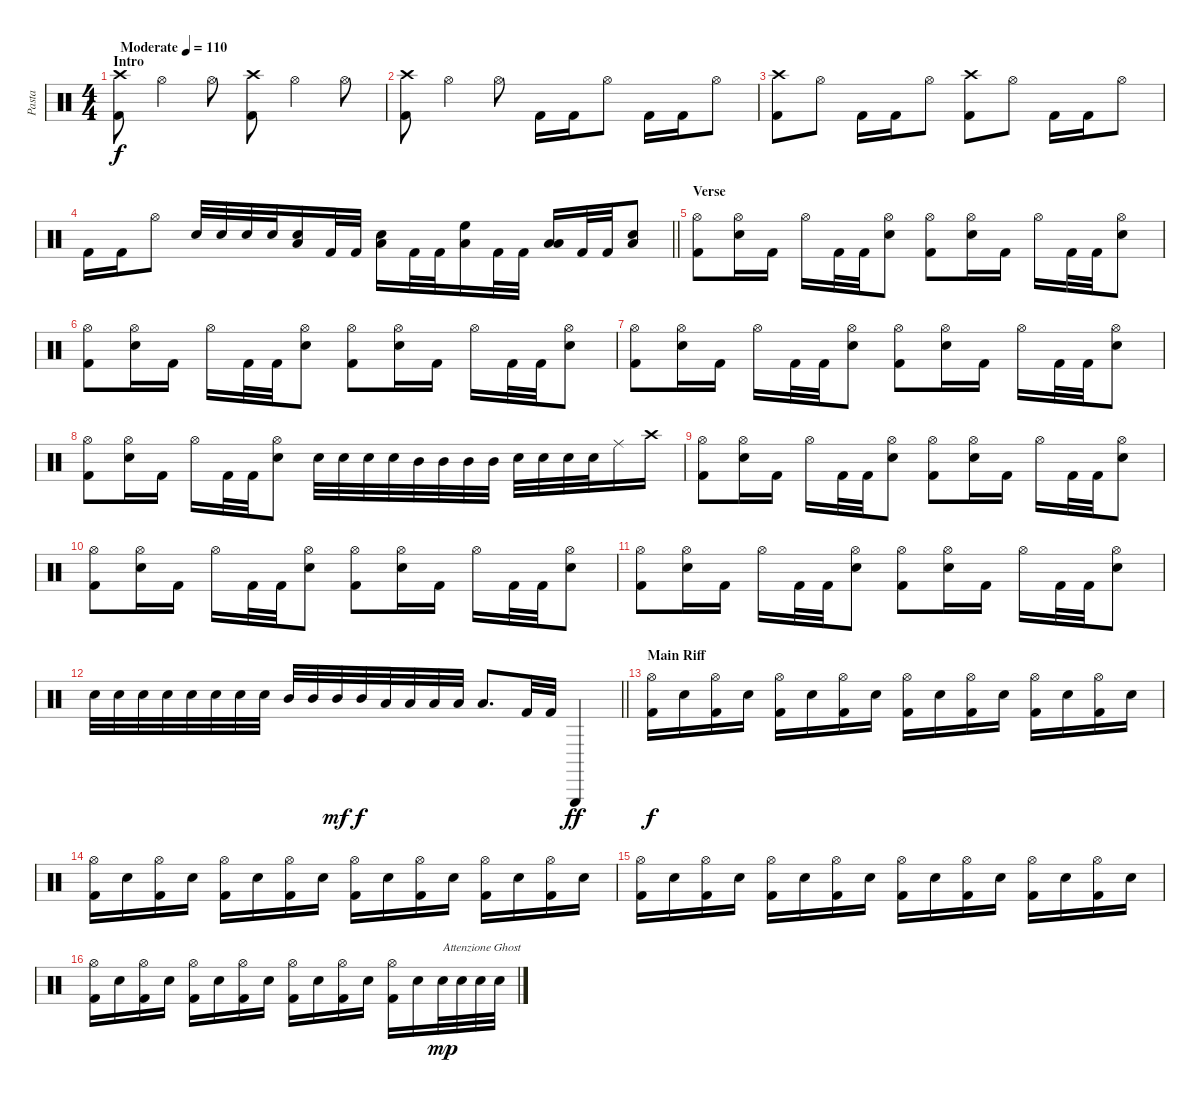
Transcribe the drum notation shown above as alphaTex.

\track ("Pasta" "Pasta") {instrument percussion}
\staff {score}
\articulation defaults
\ts (4 4)
\section ("" "Intro")
\tempo (110 "Moderate")
\clef neutral
\ks c
("Crash high (hit)" "Kick (hit) 2").8{dy f} "Hi-Hat (open)".4 "Hi-Hat (open)".8 ("Crash high (hit)" "Kick (hit) 2").8 "Hi-Hat (open)".4 "Hi-Hat (open)".8 |
("Crash high (hit)" "Kick (hit) 2").8 "Hi-Hat (open)".4 "Hi-Hat (open)".8 "Kick (hit) 2".16 "Kick (hit) 2".16 "Hi-Hat (open)".8 "Kick (hit) 2".16 "Kick (hit) 2".16 "Hi-Hat (open)".8 |
("Crash high (hit)" "Kick (hit) 2").8 "Hi-Hat (open)".8 "Kick (hit) 2".16 "Kick (hit) 2".16 "Hi-Hat (open)".8 ("Crash high (hit)" "Kick (hit) 2").8 "Hi-Hat (open)".8 "Kick (hit) 2".16 "Kick (hit) 2".16 "Hi-Hat (open)".8 |
\barLineRight lightlight "Kick (hit) 2".16 "Kick (hit) 2".16 "Hi-Hat (open)".8 "Electric Snare (hit)".32 "Electric Snare (hit)".32 "Electric Snare (hit)".32 "Electric Snare (hit)".32
("Electric Snare (hit)" "Low Tom (hit)").16 "Kick (hit) 2".32 "Kick (hit) 2".32 ("Low Tom (hit)" "Electric Snare (hit)").16 "Kick (hit) 2".32 "Kick (hit) 2".32 ("High Floor Tom (hit)" "Low Tom (hit)").16 "Kick (hit) 2".32 "Kick (hit) 2".32 ("Low Floor Tom (hit)" "Low Tom (hit)").16 "Kick (hit) 2".32 "Kick (hit) 2".32 ("Low Floor Tom (hit)" "Electric Snare (hit)").8 |
\section ("" "Verse")
("Hi-Hat (open)" "Kick (hit) 2").8 ("Hi-Hat (open)" "Electric Snare (hit)").16 "Kick (hit) 2".16 "Hi-Hat (open)".16 "Kick (hit) 2".32 "Kick (hit) 2".32 ("Hi-Hat (open)" "Electric Snare (hit)").8 ("Hi-Hat (open)" "Kick (hit) 2").8 ("Hi-Hat (open)" "Electric Snare (hit)").16 "Kick (hit) 2".16 "Hi-Hat (open)".16 "Kick (hit) 2".32 "Kick (hit) 2".32 ("Hi-Hat (open)" "Electric Snare (hit)").8 |
("Hi-Hat (open)" "Kick (hit) 2").8 ("Hi-Hat (open)" "Electric Snare (hit)").16 "Kick (hit) 2".16 "Hi-Hat (open)".16 "Kick (hit) 2".32 "Kick (hit) 2".32 ("Hi-Hat (open)" "Electric Snare (hit)").8 ("Hi-Hat (open)" "Kick (hit) 2").8 ("Hi-Hat (open)" "Electric Snare (hit)").16 "Kick (hit) 2".16 "Hi-Hat (open)".16 "Kick (hit) 2".32 "Kick (hit) 2".32 ("Hi-Hat (open)" "Electric Snare (hit)").8 |
("Hi-Hat (open)" "Kick (hit) 2").8 ("Hi-Hat (open)" "Electric Snare (hit)").16 "Kick (hit) 2".16 "Hi-Hat (open)".16 "Kick (hit) 2".32 "Kick (hit) 2".32 ("Hi-Hat (open)" "Electric Snare (hit)").8 ("Hi-Hat (open)" "Kick (hit) 2").8 ("Hi-Hat (open)" "Electric Snare (hit)").16 "Kick (hit) 2".16 "Hi-Hat (open)".16 "Kick (hit) 2".32 "Kick (hit) 2".32 ("Hi-Hat (open)" "Electric Snare (hit)").8 |
("Hi-Hat (open)" "Kick (hit) 2").8 ("Hi-Hat (open)" "Electric Snare (hit)").16 "Kick (hit) 2".16 "Hi-Hat (open)".16 "Kick (hit) 2".32 "Kick (hit) 2".32 ("Hi-Hat (open)" "Electric Snare (hit)").8 "Snare (hit) 2".32 "Snare (hit) 2".32 "Snare (hit) 2".32 "Snare (hit) 2".32 "Mid Tom (hit)".32 "Mid Tom (hit)".32 "Mid Tom (hit)".32 "Mid Tom (hit)".32 "Snare (hit) 2".32 "Snare (hit) 2".32 "Snare (hit) 2".32 "Snare (hit) 2".32 "Ride (middle)".16 "Crash high (hit)".16 |
("Hi-Hat (open)" "Kick (hit) 2").8 ("Hi-Hat (open)" "Electric Snare (hit)").16 "Kick (hit) 2".16 "Hi-Hat (open)".16 "Kick (hit) 2".32 "Kick (hit) 2".32 ("Hi-Hat (open)" "Electric Snare (hit)").8 ("Hi-Hat (open)" "Kick (hit) 2").8 ("Hi-Hat (open)" "Electric Snare (hit)").16 "Kick (hit) 2".16 "Hi-Hat (open)".16 "Kick (hit) 2".32 "Kick (hit) 2".32 ("Hi-Hat (open)" "Electric Snare (hit)").8 |
("Hi-Hat (open)" "Kick (hit) 2").8 ("Hi-Hat (open)" "Electric Snare (hit)").16 "Kick (hit) 2".16 "Hi-Hat (open)".16 "Kick (hit) 2".32 "Kick (hit) 2".32 ("Hi-Hat (open)" "Electric Snare (hit)").8 ("Hi-Hat (open)" "Kick (hit) 2").8 ("Hi-Hat (open)" "Electric Snare (hit)").16 "Kick (hit) 2".16 "Hi-Hat (open)".16 "Kick (hit) 2".32 "Kick (hit) 2".32 ("Hi-Hat (open)" "Electric Snare (hit)").8 |
("Hi-Hat (open)" "Kick (hit) 2").8 ("Hi-Hat (open)" "Electric Snare (hit)").16 "Kick (hit) 2".16 "Hi-Hat (open)".16 "Kick (hit) 2".32 "Kick (hit) 2".32 ("Hi-Hat (open)" "Electric Snare (hit)").8 ("Hi-Hat (open)" "Kick (hit) 2").8 ("Hi-Hat (open)" "Electric Snare (hit)").16 "Kick (hit) 2".16 "Hi-Hat (open)".16 "Kick (hit) 2".32 "Kick (hit) 2".32 ("Hi-Hat (open)" "Electric Snare (hit)").8 |
\barLineRight lightlight "Electric Snare (hit)".32 "Electric Snare (hit)".32 "Electric Snare (hit)".32 "Electric Snare (hit)".32 "Electric Snare (hit)".32 "Electric Snare (hit)".32 "Electric Snare (hit)".32 "Electric Snare (hit)".32 "Mid Tom (hit)".32 "Mid Tom (hit)".32 "Mid Tom (hit)".32{dy mf} "Mid Tom (hit)".32{dy f} "Low Tom (hit)".32 "Low Tom (hit)".32 "Low Tom (hit)".32 "Low Tom (hit)".32 "Low Floor Tom (hit)".8{d} "Kick (hit) 2".32 "Kick (hit) 2".32 "Triangle (hit)".4{dy ff}
|
\section ("" "Main Riff")
("Hi-Hat (open)" "Kick (hit) 2").16{dy f} "Electric Snare (hit)".16 ("Hi-Hat (open)" "Kick (hit) 2").16 "Electric Snare (hit)".16 ("Hi-Hat (open)" "Kick (hit) 2").16 "Electric Snare (hit)".16 ("Hi-Hat (open)" "Kick (hit) 2").16 "Electric Snare (hit)".16 ("Hi-Hat (open)" "Kick (hit) 2").16 "Electric Snare (hit)".16 ("Hi-Hat (open)" "Kick (hit) 2").16 "Electric Snare (hit)".16 ("Hi-Hat (open)" "Kick (hit) 2").16 "Electric Snare (hit)".16 ("Hi-Hat (open)" "Kick (hit) 2").16 "Electric Snare (hit)".16 |
("Hi-Hat (open)" "Kick (hit) 2").16 "Electric Snare (hit)".16 ("Hi-Hat (open)" "Kick (hit) 2").16 "Electric Snare (hit)".16 ("Hi-Hat (open)" "Kick (hit) 2").16 "Electric Snare (hit)".16 ("Hi-Hat (open)" "Kick (hit) 2").16 "Electric Snare (hit)".16 ("Hi-Hat (open)" "Kick (hit) 2").16 "Electric Snare (hit)".16 ("Hi-Hat (open)" "Kick (hit) 2").16 "Electric Snare (hit)".16 ("Hi-Hat (open)" "Kick (hit) 2").16 "Electric Snare (hit)".16 ("Hi-Hat (open)" "Kick (hit) 2").16 "Electric Snare (hit)".16 |
("Hi-Hat (open)" "Kick (hit) 2").16 "Electric Snare (hit)".16 ("Hi-Hat (open)" "Kick (hit) 2").16 "Electric Snare (hit)".16 ("Hi-Hat (open)" "Kick (hit) 2").16 "Electric Snare (hit)".16 ("Hi-Hat (open)" "Kick (hit) 2").16 "Electric Snare (hit)".16 ("Hi-Hat (open)" "Kick (hit) 2").16 "Electric Snare (hit)".16 ("Hi-Hat (open)" "Kick (hit) 2").16 "Electric Snare (hit)".16 ("Hi-Hat (open)" "Kick (hit) 2").16 "Electric Snare (hit)".16 ("Hi-Hat (open)" "Kick (hit) 2").16 "Electric Snare (hit)".16 |
("Hi-Hat (open)" "Kick (hit) 2").16 "Electric Snare (hit)".16 ("Hi-Hat (open)" "Kick (hit) 2").16 "Electric Snare (hit)".16 ("Hi-Hat (open)" "Kick (hit) 2").16 "Electric Snare (hit)".16 ("Hi-Hat (open)" "Kick (hit) 2").16 "Electric Snare (hit)".16 ("Hi-Hat (open)" "Kick (hit) 2").16 "Electric Snare (hit)".16 ("Hi-Hat (open)" "Kick (hit) 2").16 "Electric Snare (hit)".16 ("Hi-Hat (open)" "Kick (hit) 2").16 "Electric Snare (hit)".16 "Electric Snare (hit)".32{txt "Attenzione Ghost" dy mp} "Electric Snare (hit)".32 "Electric Snare (hit)".32 "Electric Snare (hit)".32
